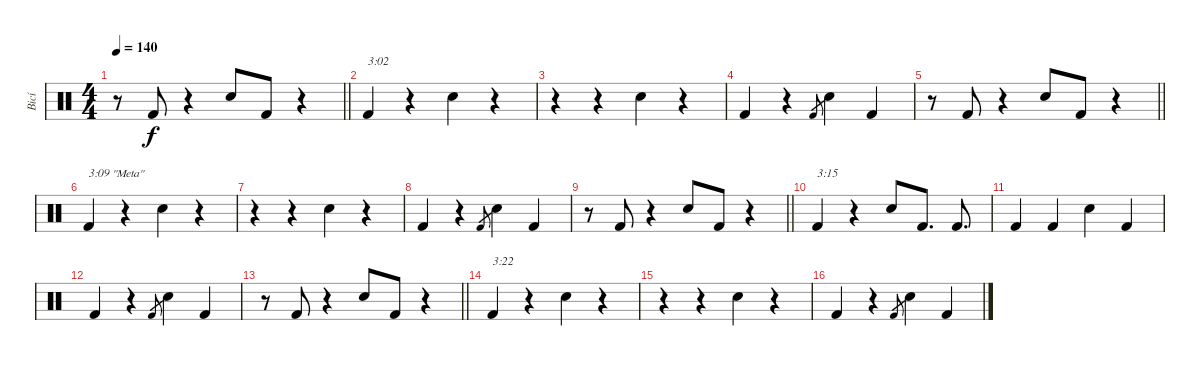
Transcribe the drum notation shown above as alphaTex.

\track ("Bicí" "Bicí") {instrument percussion}
\staff {score}
\articulation defaults
\ts (4 4)
\tempo 140
\clef neutral
\barLineRight lightlight
\ks c
r.8{dy f} "Kick (hit) 2".8 r.4 "Snare (hit) 2".8 "Kick (hit) 2".8 r.4 |
"Kick (hit) 2".4{txt "3:02"} r.4 "Snare (hit) 2".4 r.4 |
r.4 r.4 "Snare (hit) 2".4 r.4 |
"Kick (hit) 2".4 r.4 "Kick (hit) 2".8{gr} "Snare (hit) 2".4 "Kick (hit) 2".4 |
\barLineRight lightlight
r.8 "Kick (hit) 2".8 r.4 "Snare (hit) 2".8 "Kick (hit) 2".8 r.4 |
"Kick (hit) 2".4{txt "3:09 \"Meta\""} r.4 "Snare (hit) 2".4 r.4 |
r.4 r.4 "Snare (hit) 2".4 r.4 |
"Kick (hit) 2".4 r.4 "Kick (hit) 2".8{gr} "Snare (hit) 2".4 "Kick (hit) 2".4 |
\barLineRight lightlight
r.8 "Kick (hit) 2".8 r.4 "Snare (hit) 2".8 "Kick (hit) 2".8 r.4 |
"Kick (hit) 2".4{txt "3:15"} r.4 "Snare (hit) 2".8 "Kick (hit) 2".8{d} "Kick (hit) 2".8{d} |
"Kick (hit) 2".4 "Kick (hit) 2".4 "Snare (hit) 2".4 "Kick (hit) 2".4 |
"Kick (hit) 2".4 r.4 "Kick (hit) 2".8{gr} "Snare (hit) 2".4 "Kick (hit) 2".4 |
\barLineRight lightlight
r.8 "Kick (hit) 2".8 r.4 "Snare (hit) 2".8 "Kick (hit) 2".8 r.4 |
"Kick (hit) 2".4{txt "3:22"} r.4 "Snare (hit) 2".4 r.4 |
r.4 r.4 "Snare (hit) 2".4 r.4 |
"Kick (hit) 2".4 r.4 "Kick (hit) 2".8{gr} "Snare (hit) 2".4 "Kick (hit) 2".4
